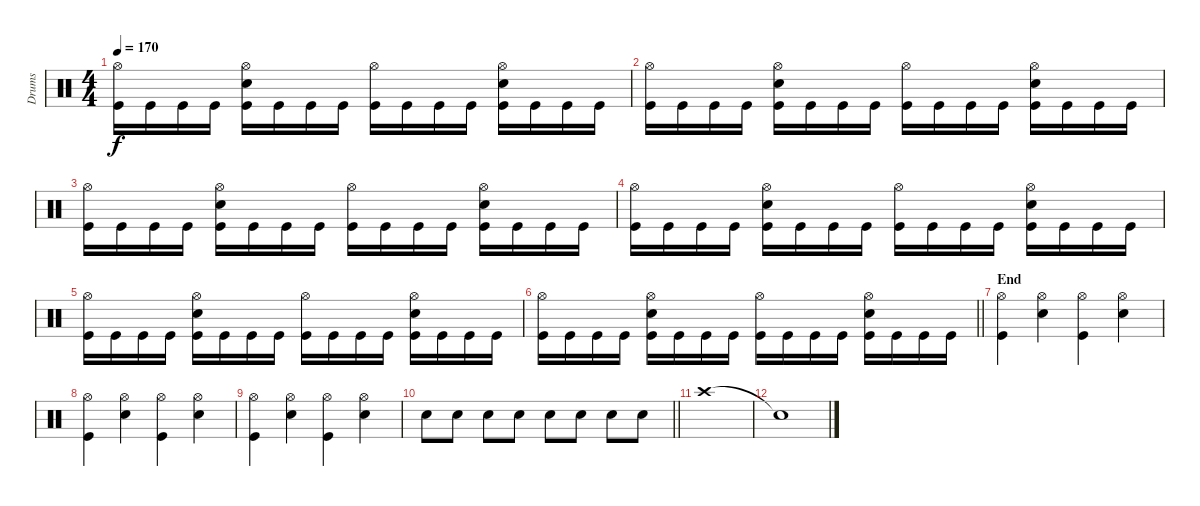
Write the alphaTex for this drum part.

\track ("Drums" "Drums") {instrument percussion}
\staff {score}
\articulation defaults
\ts (4 4)
\tempo 170
\clef neutral
\ks c
("Hi-Hat (open)" "Kick (hit)").16{dy f} "Kick (hit)".16 "Kick (hit)".16 "Kick (hit)".16 ("Hi-Hat (open)" "Snare (hit) 2" "Kick (hit)").16 "Kick (hit)".16 "Kick (hit)".16 "Kick (hit)".16 ("Hi-Hat (open)" "Kick (hit)").16 "Kick (hit)".16 "Kick (hit)".16 "Kick (hit)".16 ("Hi-Hat (open)" "Snare (hit) 2" "Kick (hit)").16 "Kick (hit)".16 "Kick (hit)".16 "Kick (hit)".16 |
("Hi-Hat (open)" "Kick (hit)").16 "Kick (hit)".16 "Kick (hit)".16 "Kick (hit)".16 ("Hi-Hat (open)" "Snare (hit) 2" "Kick (hit)").16 "Kick (hit)".16 "Kick (hit)".16 "Kick (hit)".16 ("Hi-Hat (open)" "Kick (hit)").16 "Kick (hit)".16 "Kick (hit)".16 "Kick (hit)".16 ("Hi-Hat (open)" "Snare (hit) 2" "Kick (hit)").16 "Kick (hit)".16 "Kick (hit)".16 "Kick (hit)".16 |
("Hi-Hat (open)" "Kick (hit)").16 "Kick (hit)".16 "Kick (hit)".16 "Kick (hit)".16 ("Hi-Hat (open)" "Snare (hit) 2" "Kick (hit)").16 "Kick (hit)".16 "Kick (hit)".16 "Kick (hit)".16 ("Hi-Hat (open)" "Kick (hit)").16 "Kick (hit)".16 "Kick (hit)".16 "Kick (hit)".16 ("Hi-Hat (open)" "Snare (hit) 2" "Kick (hit)").16 "Kick (hit)".16 "Kick (hit)".16 "Kick (hit)".16 |
("Hi-Hat (open)" "Kick (hit)").16 "Kick (hit)".16 "Kick (hit)".16 "Kick (hit)".16 ("Hi-Hat (open)" "Snare (hit) 2" "Kick (hit)").16 "Kick (hit)".16 "Kick (hit)".16 "Kick (hit)".16 ("Hi-Hat (open)" "Kick (hit)").16 "Kick (hit)".16 "Kick (hit)".16 "Kick (hit)".16 ("Hi-Hat (open)" "Snare (hit) 2" "Kick (hit)").16 "Kick (hit)".16 "Kick (hit)".16 "Kick (hit)".16 |
("Hi-Hat (open)" "Kick (hit)").16 "Kick (hit)".16 "Kick (hit)".16 "Kick (hit)".16 ("Hi-Hat (open)" "Snare (hit) 2" "Kick (hit)").16 "Kick (hit)".16 "Kick (hit)".16 "Kick (hit)".16 ("Hi-Hat (open)" "Kick (hit)").16 "Kick (hit)".16 "Kick (hit)".16 "Kick (hit)".16 ("Hi-Hat (open)" "Snare (hit) 2" "Kick (hit)").16 "Kick (hit)".16 "Kick (hit)".16 "Kick (hit)".16 |
\barLineRight lightlight
("Hi-Hat (open)" "Kick (hit)").16 "Kick (hit)".16 "Kick (hit)".16 "Kick (hit)".16 ("Hi-Hat (open)" "Snare (hit) 2" "Kick (hit)").16 "Kick (hit)".16 "Kick (hit)".16 "Kick (hit)".16 ("Hi-Hat (open)" "Kick (hit)").16 "Kick (hit)".16 "Kick (hit)".16 "Kick (hit)".16 ("Hi-Hat (open)" "Snare (hit) 2" "Kick (hit)").16 "Kick (hit)".16 "Kick (hit)".16 "Kick (hit)".16 |
\section ("" "End")
("Hi-Hat (open)" "Kick (hit)").4 ("Hi-Hat (open)" "Snare (hit) 2").4 ("Hi-Hat (open)" "Kick (hit)").4 ("Hi-Hat (open)" "Snare (hit) 2").4 |
("Hi-Hat (open)" "Kick (hit)").4 ("Hi-Hat (open)" "Snare (hit) 2").4 ("Hi-Hat (open)" "Kick (hit)").4 ("Hi-Hat (open)" "Snare (hit) 2").4 |
("Hi-Hat (open)" "Kick (hit)").4 ("Hi-Hat (open)" "Snare (hit) 2").4 ("Hi-Hat (open)" "Kick (hit)").4 ("Hi-Hat (open)" "Snare (hit) 2").4 |
\barLineRight lightlight "Snare (hit) 2".8 "Snare (hit) 2".8 "Snare (hit) 2".8 "Snare (hit) 2".8 "Snare (hit) 2".8 "Snare (hit) 2".8 "Snare (hit) 2".8 "Snare (hit) 2".8
|
"Crash high (hit)".1 |
"Snare (hit)"{t}.1
